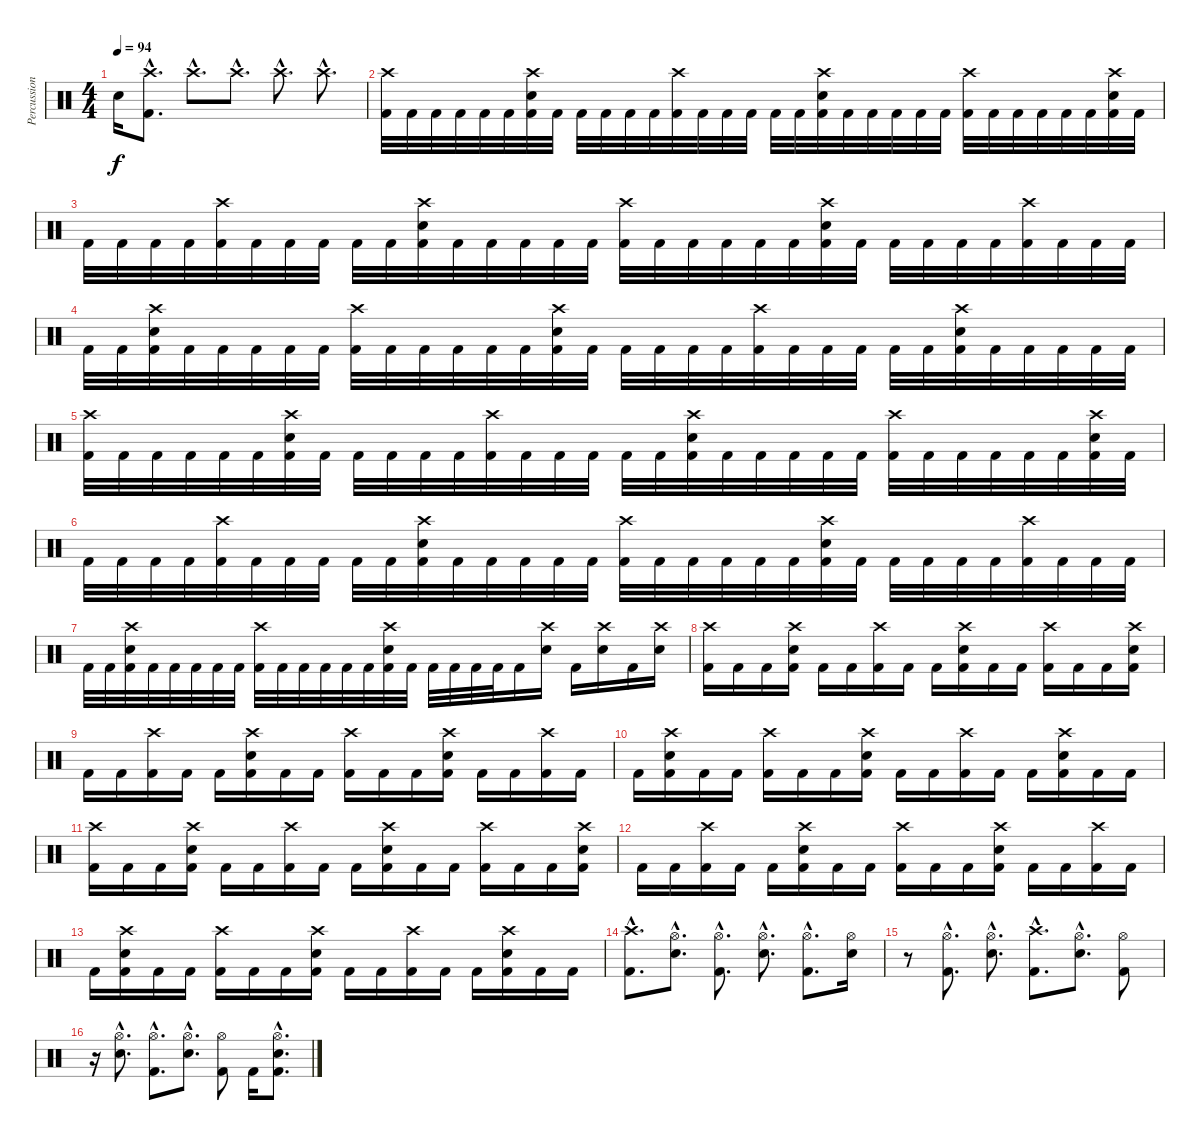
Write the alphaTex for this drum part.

\track ("Percussion" "Percussion") {instrument percussion}
\staff {score}
\articulation defaults
\ts (4 4)
\tempo 94
\clef neutral
\ks c "Snare (hit)"{t}.16{dy f}
("Crash high (hit)"{hac} "Kick (hit) 2"{hac}).8{d} "Crash high (hit)"{hac}.8{d} "Crash high (hit)"{hac}.8{d} "Crash high (hit)"{hac}.8{d} "Crash high (hit)"{hac}.8{d} |
("Crash high (hit)" "Kick (hit) 2").32 "Kick (hit) 2".32 "Kick (hit) 2".32 "Kick (hit) 2".32 "Kick (hit) 2".32 "Kick (hit) 2".32 ("Crash high (hit)" "Electric Snare (hit)" "Kick (hit) 2").32 "Kick (hit) 2".32 "Kick (hit) 2".32 "Kick (hit) 2".32 "Kick (hit) 2".32 "Kick (hit) 2".32 ("Crash high (hit)" "Kick (hit) 2").32 "Kick (hit) 2".32 "Kick (hit) 2".32 "Kick (hit) 2".32 "Kick (hit) 2".32 "Kick (hit) 2".32 ("Crash high (hit)" "Electric Snare (hit)" "Kick (hit) 2").32 "Kick (hit) 2".32 "Kick (hit) 2".32 "Kick (hit) 2".32 "Kick (hit) 2".32 "Kick (hit) 2".32 ("Crash high (hit)" "Kick (hit) 2").32 "Kick (hit) 2".32 "Kick (hit) 2".32 "Kick (hit) 2".32 "Kick (hit) 2".32 "Kick (hit) 2".32 ("Crash high (hit)" "Electric Snare (hit)" "Kick (hit) 2").32 "Kick (hit) 2".32 |
"Kick (hit) 2".32 "Kick (hit) 2".32 "Kick (hit) 2".32 "Kick (hit) 2".32 ("Crash high (hit)" "Kick (hit) 2").32 "Kick (hit) 2".32 "Kick (hit) 2".32 "Kick (hit) 2".32 "Kick (hit) 2".32 "Kick (hit) 2".32 ("Crash high (hit)" "Electric Snare (hit)" "Kick (hit) 2").32 "Kick (hit) 2".32 "Kick (hit) 2".32 "Kick (hit) 2".32 "Kick (hit) 2".32 "Kick (hit) 2".32 ("Crash high (hit)" "Kick (hit) 2").32 "Kick (hit) 2".32 "Kick (hit) 2".32 "Kick (hit) 2".32 "Kick (hit) 2".32 "Kick (hit) 2".32 ("Crash high (hit)" "Electric Snare (hit)" "Kick (hit) 2").32 "Kick (hit) 2".32 "Kick (hit) 2".32 "Kick (hit) 2".32 "Kick (hit) 2".32 "Kick (hit) 2".32 ("Crash high (hit)" "Kick (hit) 2").32 "Kick (hit) 2".32 "Kick (hit) 2".32 "Kick (hit) 2".32 |
"Kick (hit) 2".32 "Kick (hit) 2".32 ("Crash high (hit)" "Electric Snare (hit)" "Kick (hit) 2").32 "Kick (hit) 2".32 "Kick (hit) 2".32 "Kick (hit) 2".32 "Kick (hit) 2".32 "Kick (hit) 2".32 ("Crash high (hit)" "Kick (hit) 2").32 "Kick (hit) 2".32 "Kick (hit) 2".32 "Kick (hit) 2".32 "Kick (hit) 2".32 "Kick (hit) 2".32 ("Crash high (hit)" "Electric Snare (hit)" "Kick (hit) 2").32 "Kick (hit) 2".32 "Kick (hit) 2".32 "Kick (hit) 2".32 "Kick (hit) 2".32 "Kick (hit) 2".32 ("Crash high (hit)" "Kick (hit) 2").32 "Kick (hit) 2".32 "Kick (hit) 2".32 "Kick (hit) 2".32 "Kick (hit) 2".32 "Kick (hit) 2".32 ("Crash high (hit)" "Electric Snare (hit)" "Kick (hit) 2").32 "Kick (hit) 2".32 "Kick (hit) 2".32 "Kick (hit) 2".32 "Kick (hit) 2".32 "Kick (hit) 2".32 |
("Crash high (hit)" "Kick (hit) 2").32 "Kick (hit) 2".32 "Kick (hit) 2".32 "Kick (hit) 2".32 "Kick (hit) 2".32 "Kick (hit) 2".32 ("Crash high (hit)" "Electric Snare (hit)" "Kick (hit) 2").32 "Kick (hit) 2".32 "Kick (hit) 2".32 "Kick (hit) 2".32 "Kick (hit) 2".32 "Kick (hit) 2".32 ("Crash high (hit)" "Kick (hit) 2").32 "Kick (hit) 2".32 "Kick (hit) 2".32 "Kick (hit) 2".32 "Kick (hit) 2".32 "Kick (hit) 2".32 ("Crash high (hit)" "Electric Snare (hit)" "Kick (hit) 2").32 "Kick (hit) 2".32 "Kick (hit) 2".32 "Kick (hit) 2".32 "Kick (hit) 2".32 "Kick (hit) 2".32 ("Crash high (hit)" "Kick (hit) 2").32 "Kick (hit) 2".32 "Kick (hit) 2".32 "Kick (hit) 2".32 "Kick (hit) 2".32 "Kick (hit) 2".32 ("Crash high (hit)" "Electric Snare (hit)" "Kick (hit) 2").32 "Kick (hit) 2".32 |
"Kick (hit) 2".32 "Kick (hit) 2".32 "Kick (hit) 2".32 "Kick (hit) 2".32 ("Crash high (hit)" "Kick (hit) 2").32 "Kick (hit) 2".32 "Kick (hit) 2".32 "Kick (hit) 2".32 "Kick (hit) 2".32 "Kick (hit) 2".32 ("Crash high (hit)" "Electric Snare (hit)" "Kick (hit) 2").32 "Kick (hit) 2".32 "Kick (hit) 2".32 "Kick (hit) 2".32 "Kick (hit) 2".32 "Kick (hit) 2".32 ("Crash high (hit)" "Kick (hit) 2").32 "Kick (hit) 2".32 "Kick (hit) 2".32 "Kick (hit) 2".32 "Kick (hit) 2".32 "Kick (hit) 2".32 ("Crash high (hit)" "Electric Snare (hit)" "Kick (hit) 2").32 "Kick (hit) 2".32 "Kick (hit) 2".32 "Kick (hit) 2".32 "Kick (hit) 2".32 "Kick (hit) 2".32 ("Crash high (hit)" "Kick (hit) 2").32 "Kick (hit) 2".32 "Kick (hit) 2".32 "Kick (hit) 2".32 |
"Kick (hit) 2".32 "Kick (hit) 2".32 ("Crash high (hit)" "Electric Snare (hit)" "Kick (hit) 2").32 "Kick (hit) 2".32 "Kick (hit) 2".32 "Kick (hit) 2".32 "Kick (hit) 2".32 "Kick (hit) 2".32 ("Crash high (hit)" "Kick (hit) 2").32 "Kick (hit) 2".32 "Kick (hit) 2".32 "Kick (hit) 2".32 "Kick (hit) 2".32 "Kick (hit) 2".32 ("Crash high (hit)" "Electric Snare (hit)" "Kick (hit) 2").32 "Kick (hit) 2".32 "Kick (hit) 2".32 "Kick (hit) 2".32 "Kick (hit) 2".32 "Kick (hit) 2".32 "Kick (hit) 2".16 ("Crash high (hit)" "Electric Snare (hit)").16 "Kick (hit) 2".16 ("Crash high (hit)" "Electric Snare (hit)").16 "Kick (hit) 2".16 ("Crash high (hit)" "Electric Snare (hit)").16 |
("Crash high (hit)" "Kick (hit) 2").16 "Kick (hit) 2".16 "Kick (hit) 2".16 ("Crash high (hit)" "Electric Snare (hit)" "Kick (hit) 2").16 "Kick (hit) 2".16 "Kick (hit) 2".16 ("Crash high (hit)" "Kick (hit) 2").16 "Kick (hit) 2".16 "Kick (hit) 2".16 ("Crash high (hit)" "Electric Snare (hit)" "Kick (hit) 2").16 "Kick (hit) 2".16 "Kick (hit) 2".16 ("Crash high (hit)" "Kick (hit) 2").16 "Kick (hit) 2".16 "Kick (hit) 2".16 ("Crash high (hit)" "Electric Snare (hit)" "Kick (hit) 2").16 |
"Kick (hit) 2".16 "Kick (hit) 2".16 ("Crash high (hit)" "Kick (hit) 2").16 "Kick (hit) 2".16 "Kick (hit) 2".16 ("Crash high (hit)" "Electric Snare (hit)" "Kick (hit) 2").16 "Kick (hit) 2".16 "Kick (hit) 2".16 ("Crash high (hit)" "Kick (hit) 2").16 "Kick (hit) 2".16 "Kick (hit) 2".16 ("Crash high (hit)" "Electric Snare (hit)" "Kick (hit) 2").16 "Kick (hit) 2".16 "Kick (hit) 2".16 ("Crash high (hit)" "Kick (hit) 2").16 "Kick (hit) 2".16 |
"Kick (hit) 2".16 ("Crash high (hit)" "Electric Snare (hit)" "Kick (hit) 2").16 "Kick (hit) 2".16 "Kick (hit) 2".16 ("Crash high (hit)" "Kick (hit) 2").16 "Kick (hit) 2".16 "Kick (hit) 2".16 ("Crash high (hit)" "Electric Snare (hit)" "Kick (hit) 2").16 "Kick (hit) 2".16 "Kick (hit) 2".16 ("Crash high (hit)" "Kick (hit) 2").16 "Kick (hit) 2".16 "Kick (hit) 2".16 ("Crash high (hit)" "Electric Snare (hit)" "Kick (hit) 2").16 "Kick (hit) 2".16 "Kick (hit) 2".16 |
("Crash high (hit)" "Kick (hit) 2").16 "Kick (hit) 2".16 "Kick (hit) 2".16 ("Crash high (hit)" "Electric Snare (hit)" "Kick (hit) 2").16 "Kick (hit) 2".16 "Kick (hit) 2".16 ("Crash high (hit)" "Kick (hit) 2").16 "Kick (hit) 2".16 "Kick (hit) 2".16 ("Crash high (hit)" "Electric Snare (hit)" "Kick (hit) 2").16 "Kick (hit) 2".16 "Kick (hit) 2".16 ("Crash high (hit)" "Kick (hit) 2").16 "Kick (hit) 2".16 "Kick (hit) 2".16 ("Crash high (hit)" "Electric Snare (hit)" "Kick (hit) 2").16 |
"Kick (hit) 2".16 "Kick (hit) 2".16 ("Crash high (hit)" "Kick (hit) 2").16 "Kick (hit) 2".16 "Kick (hit) 2".16 ("Crash high (hit)" "Electric Snare (hit)" "Kick (hit) 2").16 "Kick (hit) 2".16 "Kick (hit) 2".16 ("Crash high (hit)" "Kick (hit) 2").16 "Kick (hit) 2".16 "Kick (hit) 2".16 ("Crash high (hit)" "Electric Snare (hit)" "Kick (hit) 2").16 "Kick (hit) 2".16 "Kick (hit) 2".16 ("Crash high (hit)" "Kick (hit) 2").16 "Kick (hit) 2".16 |
"Kick (hit) 2".16 ("Crash high (hit)" "Electric Snare (hit)" "Kick (hit) 2").16 "Kick (hit) 2".16 "Kick (hit) 2".16 ("Crash high (hit)" "Kick (hit) 2").16 "Kick (hit) 2".16 "Kick (hit) 2".16 ("Crash high (hit)" "Electric Snare (hit)" "Kick (hit) 2").16 "Kick (hit) 2".16 "Kick (hit) 2".16 ("Crash high (hit)" "Kick (hit) 2").16 "Kick (hit) 2".16 "Kick (hit) 2".16 ("Crash high (hit)" "Electric Snare (hit)" "Kick (hit) 2").16 "Kick (hit) 2".16 "Kick (hit) 2".16 |
("Crash high (hit)"{hac} "Kick (hit) 2"{hac}).8{d} ("Electric Snare (hit)"{hac} "Hi-Hat (open)"{hac}).8{d} ("Hi-Hat (open)"{hac} "Kick (hit) 2"{hac}).8{d} ("Electric Snare (hit)"{hac} "Hi-Hat (open)"{hac}).8{d} ("Hi-Hat (open)"{hac} "Kick (hit) 2"{hac}).8{d} ("Electric Snare (hit)" "Hi-Hat (open)").16 |
r.8 ("Hi-Hat (open)"{hac} "Kick (hit) 2"{hac}).8{d} ("Electric Snare (hit)"{hac} "Hi-Hat (open)"{hac}).8{d} ("Crash high (hit)"{hac} "Kick (hit) 2"{hac}).8{d} ("Electric Snare (hit)"{hac} "Hi-Hat (open)"{hac}).8{d} ("Hi-Hat (open)" "Kick (hit) 2").8 |
r.16 ("Electric Snare (hit)"{hac} "Hi-Hat (open)"{hac}).8{d} ("Hi-Hat (open)"{hac} "Kick (hit) 2"{hac}).8{d} ("Electric Snare (hit)"{hac} "Hi-Hat (open)"{hac}).8{d} ("Hi-Hat (open)" "Kick (hit) 2").8 "Kick (hit) 2".16 ("Electric Snare (hit)"{hac} "Hi-Hat (open)"{hac} "Kick (hit) 2"{hac}).8{d}
